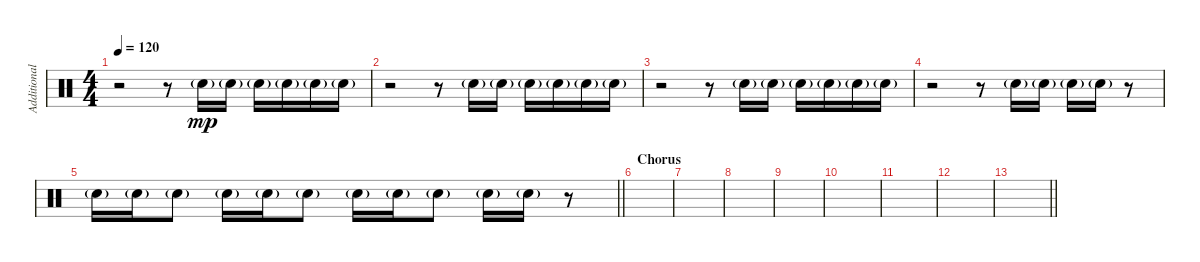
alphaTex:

\track ("Additional Drums" "Additional") {instrument percussion}
\staff {score}
\articulation defaults
\ts (4 4)
\tempo 120
\clef neutral
\ks c
r.2{dy mp volume 11 balance 5} r.8 "Snare (hit) 2"{g}.16 "Snare (hit) 2"{g}.16 "Snare (hit) 2"{g}.16 "Snare (hit) 2"{g}.16 "Snare (hit) 2"{g}.16 "Snare (hit) 2"{g}.16 |
r.2{balance 11} r.8 "Snare (hit) 2"{g}.16 "Snare (hit) 2"{g}.16 "Snare (hit) 2"{g}.16 "Snare (hit) 2"{g}.16 "Snare (hit) 2"{g}.16 "Snare (hit) 2"{g}.16 |
r.2{balance 5} r.8 "Snare (hit) 2"{g}.16 "Snare (hit) 2"{g}.16 "Snare (hit) 2"{g}.16 "Snare (hit) 2"{g}.16 "Snare (hit) 2"{g}.16 "Snare (hit) 2"{g}.16 |
r.2{balance 11} r.8 "Snare (hit) 2"{g}.16 "Snare (hit) 2"{g}.16 "Snare (hit) 2"{g}.16 "Snare (hit) 2"{g}.16 r.8 |
\barLineRight lightlight "Snare (hit) 2"{g}.16{balance 5} "Snare (hit) 2"{g}.16 "Snare (hit) 2"{g}.8 "Snare (hit) 2"{g}.16{balance 11} "Snare (hit) 2"{g}.16 "Snare (hit) 2"{g}.8 "Snare (hit) 2"{g}.16{balance 5} "Snare (hit) 2"{g}.16 "Snare (hit) 2"{g}.8 "Snare (hit) 2"{g}.16{balance 11} "Snare (hit) 2"{g}.16
r.8 |
\section ("" "Chorus")
|
|
|
|
|
|
|
\barLineRight lightlight
